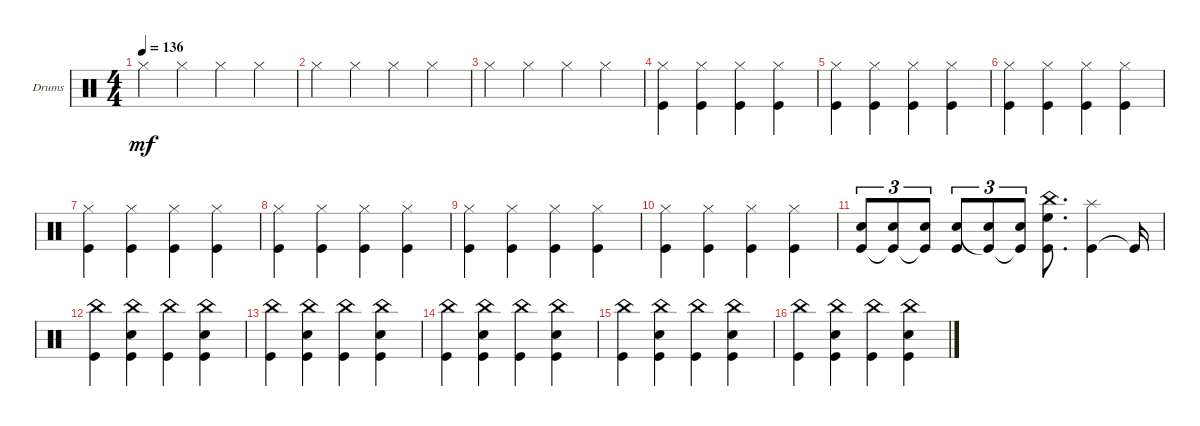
\defaultSystemsLayout 4
\bracketExtendMode groupsimilarinstruments
\firstSystemTrackNameOrientation horizontal
\otherSystemsTrackNameOrientation horizontal
\track ("Drumkit" "Drums") {instrument percussion}
\staff {score}
\articulation defaults
\ts (4 4)
\tempo 136
\clef neutral
\ks c "Hi-Hat (closed)".4{dy mf} "Hi-Hat (closed)".4 "Hi-Hat (closed)".4 "Hi-Hat (closed)".4
|
"Hi-Hat (closed)".4 "Hi-Hat (closed)".4 "Hi-Hat (closed)".4 "Hi-Hat (closed)".4 |
"Hi-Hat (closed)".4 "Hi-Hat (closed)".4 "Hi-Hat (closed)".4 "Hi-Hat (closed)".4 |
("Hi-Hat (closed)" "Kick (hit)").4 ("Hi-Hat (closed)" "Kick (hit)").4 ("Hi-Hat (closed)" "Kick (hit)").4 ("Hi-Hat (closed)" "Kick (hit)").4 |
("Hi-Hat (closed)" "Kick (hit)").4 ("Hi-Hat (closed)" "Kick (hit)").4 ("Hi-Hat (closed)" "Kick (hit)").4 ("Hi-Hat (closed)" "Kick (hit)").4 |
("Hi-Hat (closed)" "Kick (hit)").4 ("Hi-Hat (closed)" "Kick (hit)").4 ("Hi-Hat (closed)" "Kick (hit)").4 ("Hi-Hat (closed)" "Kick (hit)").4 |
("Hi-Hat (closed)" "Kick (hit)").4 ("Hi-Hat (closed)" "Kick (hit)").4 ("Hi-Hat (closed)" "Kick (hit)").4 ("Hi-Hat (closed)" "Kick (hit)").4 |
("Hi-Hat (closed)" "Kick (hit)").4 ("Hi-Hat (closed)" "Kick (hit)").4 ("Hi-Hat (closed)" "Kick (hit)").4 ("Hi-Hat (closed)" "Kick (hit)").4 |
("Hi-Hat (closed)" "Kick (hit)").4 ("Hi-Hat (closed)" "Kick (hit)").4 ("Hi-Hat (closed)" "Kick (hit)").4 ("Hi-Hat (closed)" "Kick (hit)").4 |
("Hi-Hat (closed)" "Kick (hit)").4 ("Hi-Hat (closed)" "Kick (hit)").4 ("Hi-Hat (closed)" "Kick (hit)").4 ("Hi-Hat (closed)" "Kick (hit)").4 |
("Kick (hit)" "Snare (hit) 2").8{tu (3 2)} ("Kick (hit)"{t} "Snare (hit) 2").8{tu (3 2)} ("Kick (hit)"{t} "Snare (hit) 2").8{tu (3 2)} ("Kick (hit)" "Snare (hit) 2").8{tu (3 2)} ("Snare (hit) 2" "Kick (hit)"{t}).8{tu (3 2)} ("Snare (hit) 2" "Kick (hit)"{t}).8{tu (3 2)} ("Kick (hit)" "High Floor Tom (hit)" "China (hit)").8{d} ("Kick (hit)" "Splash (hit)").4 "Kick (hit)"{t}.16 |
("Kick (hit)" "China (hit)").4 ("Kick (hit)" "Snare (hit) 2" "China (hit)").4 ("Kick (hit)" "China (hit)").4 ("Kick (hit)" "Snare (hit) 2" "China (hit)").4 |
("Kick (hit)" "China (hit)").4 ("Kick (hit)" "Snare (hit) 2" "China (hit)").4 ("Kick (hit)" "China (hit)").4 ("Kick (hit)" "Snare (hit) 2" "China (hit)").4 |
("Kick (hit)" "China (hit)").4 ("Kick (hit)" "Snare (hit) 2" "China (hit)").4 ("Kick (hit)" "China (hit)").4 ("Kick (hit)" "Snare (hit) 2" "China (hit)").4 |
("Kick (hit)" "China (hit)").4 ("Kick (hit)" "Snare (hit) 2" "China (hit)").4 ("Kick (hit)" "China (hit)").4 ("Kick (hit)" "Snare (hit) 2" "China (hit)").4 |
("Kick (hit)" "China (hit)").4 ("Kick (hit)" "Snare (hit) 2" "China (hit)").4 ("Kick (hit)" "China (hit)").4 ("Kick (hit)" "Snare (hit) 2" "China (hit)").4
